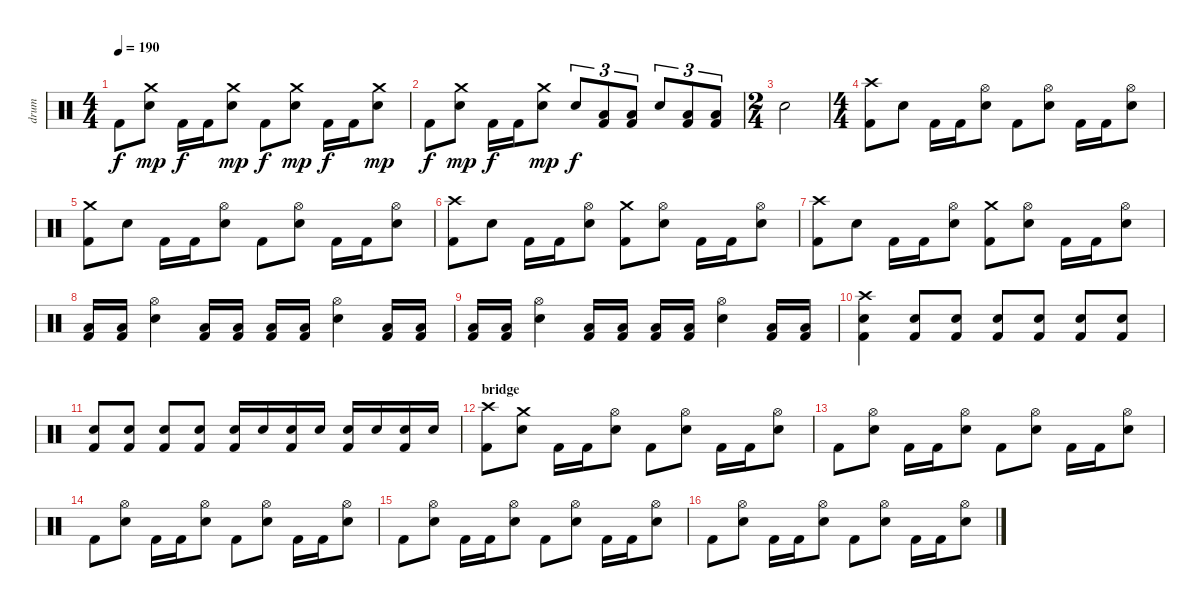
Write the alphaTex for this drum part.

\track ("drum" "drum") {instrument percussion}
\staff {score}
\articulation defaults
\ts (4 4)
\tempo 190
\clef neutral
\ks c "Kick (hit) 2".8{dy f}
("Crash medium (hit)" "Electric Snare (hit)").8{dy mp} "Kick (hit) 2".16{dy f} "Kick (hit) 2".16 ("Crash medium (hit)" "Electric Snare (hit)").8{dy mp} "Kick (hit) 2".8{dy f} ("Crash medium (hit)" "Electric Snare (hit)").8{dy mp} "Kick (hit) 2".16{dy f} "Kick (hit) 2".16 ("Crash medium (hit)" "Electric Snare (hit)").8{dy mp} |
"Kick (hit) 2".8{dy f} ("Crash medium (hit)" "Electric Snare (hit)").8{dy mp} "Kick (hit) 2".16{dy f} "Kick (hit) 2".16 ("Crash medium (hit)" "Electric Snare (hit)").8{dy mp} "Electric Snare (hit)".8{tu (3 2) dy f} ("Low Floor Tom (hit)" "Kick (hit) 2").8{tu (3 2)} ("Low Floor Tom (hit)" "Kick (hit) 2").8{tu (3 2)} "Electric Snare (hit)".8{tu (3 2)} ("Low Floor Tom (hit)" "Kick (hit) 2").8{tu (3 2)} ("Low Floor Tom (hit)" "Kick (hit) 2").8{tu (3 2)} |
\ts (2 4)
"Electric Snare (hit)".2 |
\ts (4 4)
("Crash high (hit)" "Kick (hit) 2").8 "Electric Snare (hit)".8 "Kick (hit) 2".16 "Kick (hit) 2".16 ("Hi-Hat (open)" "Electric Snare (hit)").8 "Kick (hit) 2".8 ("Hi-Hat (open)" "Electric Snare (hit)").8 "Kick (hit) 2".16 "Kick (hit) 2".16 ("Hi-Hat (open)" "Electric Snare (hit)").8 |
("Crash medium (hit)" "Kick (hit) 2").8 "Electric Snare (hit)".8 "Kick (hit) 2".16 "Kick (hit) 2".16 ("Hi-Hat (open)" "Electric Snare (hit)").8 "Kick (hit) 2".8 ("Hi-Hat (open)" "Electric Snare (hit)").8 "Kick (hit) 2".16 "Kick (hit) 2".16 ("Hi-Hat (open)" "Electric Snare (hit)").8 |
("Crash high (hit)" "Kick (hit) 2").8 "Electric Snare (hit)".8 "Kick (hit) 2".16 "Kick (hit) 2".16 ("Hi-Hat (open)" "Electric Snare (hit)").8 ("Crash medium (hit)" "Kick (hit) 2").8 ("Hi-Hat (open)" "Electric Snare (hit)").8 "Kick (hit) 2".16 "Kick (hit) 2".16 ("Hi-Hat (open)" "Electric Snare (hit)").8 |
("Crash high (hit)" "Kick (hit) 2").8 "Electric Snare (hit)".8 "Kick (hit) 2".16 "Kick (hit) 2".16 ("Hi-Hat (open)" "Electric Snare (hit)").8 ("Crash medium (hit)" "Kick (hit) 2").8 ("Hi-Hat (open)" "Electric Snare (hit)").8 "Kick (hit) 2".16 "Kick (hit) 2".16 ("Hi-Hat (open)" "Electric Snare (hit)").8 |
("Low Tom (hit)" "Kick (hit) 2").16 ("Low Tom (hit)" "Kick (hit) 2").16 ("Hi-Hat (open)" "Electric Snare (hit)").4 ("Low Tom (hit)" "Kick (hit) 2").16 ("Low Tom (hit)" "Kick (hit) 2").16 ("Low Tom (hit)" "Kick (hit) 2").16 ("Low Tom (hit)" "Kick (hit) 2").16 ("Hi-Hat (open)" "Electric Snare (hit)").4 ("Low Tom (hit)" "Kick (hit) 2").16 ("Low Tom (hit)" "Kick (hit) 2").16 |
("Low Tom (hit)" "Kick (hit) 2").16 ("Low Tom (hit)" "Kick (hit) 2").16 ("Hi-Hat (open)" "Electric Snare (hit)").4 ("Low Tom (hit)" "Kick (hit) 2").16 ("Low Tom (hit)" "Kick (hit) 2").16 ("Low Tom (hit)" "Kick (hit) 2").16 ("Low Tom (hit)" "Kick (hit) 2").16 ("Hi-Hat (open)" "Electric Snare (hit)").4 ("Low Tom (hit)" "Kick (hit) 2").16 ("Low Tom (hit)" "Kick (hit) 2").16 |
("Crash high (hit)" "Electric Snare (hit)" "Kick (hit) 2").4 ("Electric Snare (hit)" "Kick (hit) 2").8 ("Electric Snare (hit)" "Kick (hit) 2").8 ("Electric Snare (hit)" "Kick (hit) 2").8 ("Electric Snare (hit)" "Kick (hit) 2").8 ("Electric Snare (hit)" "Kick (hit) 2").8 ("Electric Snare (hit)" "Kick (hit) 2").8 |
("Electric Snare (hit)" "Kick (hit) 2").8 ("Electric Snare (hit)" "Kick (hit) 2").8 ("Electric Snare (hit)" "Kick (hit) 2").8 ("Electric Snare (hit)" "Kick (hit) 2").8 ("Electric Snare (hit)" "Kick (hit) 2").16 "Electric Snare (hit)".16 ("Electric Snare (hit)" "Kick (hit) 2").16 "Electric Snare (hit)".16 ("Electric Snare (hit)" "Kick (hit) 2").16 "Electric Snare (hit)".16 ("Electric Snare (hit)" "Kick (hit) 2").16 "Electric Snare (hit)".16 |
\section ("" "bridge")
("Crash high (hit)" "Kick (hit) 2").8 ("Crash medium (hit)" "Electric Snare (hit)").8 "Kick (hit) 2".16 "Kick (hit) 2".16 ("Hi-Hat (open)" "Electric Snare (hit)").8 "Kick (hit) 2".8 ("Hi-Hat (open)" "Electric Snare (hit)").8 "Kick (hit) 2".16 "Kick (hit) 2".16 ("Hi-Hat (open)" "Electric Snare (hit)").8 |
"Kick (hit) 2".8 ("Hi-Hat (open)" "Electric Snare (hit)").8 "Kick (hit) 2".16 "Kick (hit) 2".16 ("Hi-Hat (open)" "Electric Snare (hit)").8 "Kick (hit) 2".8 ("Hi-Hat (open)" "Electric Snare (hit)").8 "Kick (hit) 2".16 "Kick (hit) 2".16 ("Hi-Hat (open)" "Electric Snare (hit)").8 |
"Kick (hit) 2".8 ("Hi-Hat (open)" "Electric Snare (hit)").8 "Kick (hit) 2".16 "Kick (hit) 2".16 ("Hi-Hat (open)" "Electric Snare (hit)").8 "Kick (hit) 2".8 ("Hi-Hat (open)" "Electric Snare (hit)").8 "Kick (hit) 2".16 "Kick (hit) 2".16 ("Hi-Hat (open)" "Electric Snare (hit)").8 |
"Kick (hit) 2".8 ("Hi-Hat (open)" "Electric Snare (hit)").8 "Kick (hit) 2".16 "Kick (hit) 2".16 ("Hi-Hat (open)" "Electric Snare (hit)").8 "Kick (hit) 2".8 ("Hi-Hat (open)" "Electric Snare (hit)").8 "Kick (hit) 2".16 "Kick (hit) 2".16 ("Hi-Hat (open)" "Electric Snare (hit)").8 |
"Kick (hit) 2".8 ("Hi-Hat (open)" "Electric Snare (hit)").8 "Kick (hit) 2".16 "Kick (hit) 2".16 ("Hi-Hat (open)" "Electric Snare (hit)").8 "Kick (hit) 2".8 ("Hi-Hat (open)" "Electric Snare (hit)").8 "Kick (hit) 2".16 "Kick (hit) 2".16 ("Hi-Hat (open)" "Electric Snare (hit)").8
